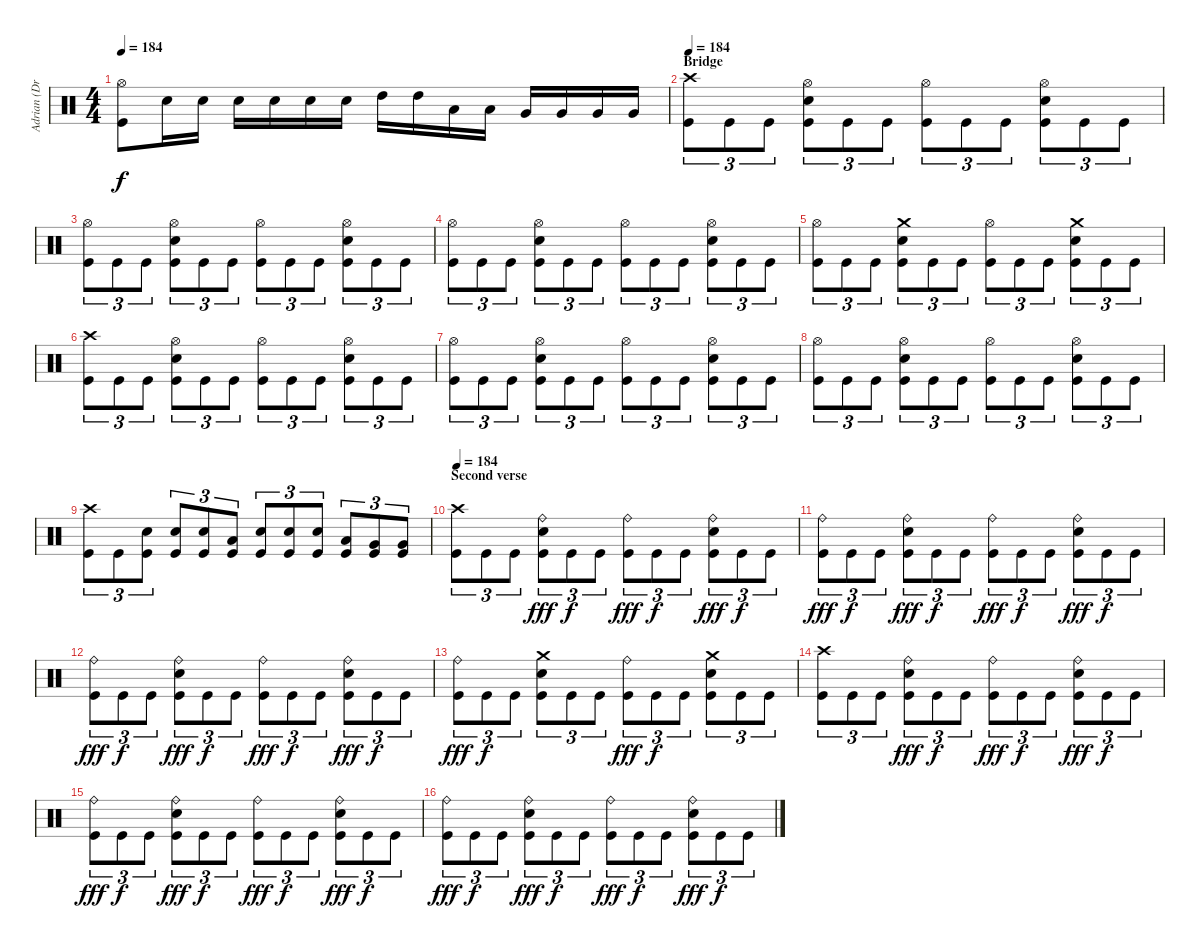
\track ("Adrian (Drums)" "Adrian (Dr") {instrument percussion}
\staff {score}
\articulation defaults
\ts (4 4)
\tempo 184
\clef neutral
\ks c
("Hi-Hat (open)" "Kick (hit)").8{dy f} "Electric Snare (hit)".16 "Electric Snare (hit)".16 "Electric Snare (hit)".16 "Electric Snare (hit)".16 "Electric Snare (hit)".16 "Electric Snare (hit)".16 "High Tom (hit)".16 "High Tom (hit)".16 "Low Tom (hit)".16 "Low Tom (hit)".16 "Very Low Tom (hit)".16 "Very Low Tom (hit)".16 "Very Low Tom (hit)".16 "Very Low Tom (hit)".16 |
\section ("" "Bridge")
\tempo 184
("Crash high (hit)" "Kick (hit)").8{tu (3 2)} "Kick (hit)".8{tu (3 2)} "Kick (hit)".8{tu (3 2)} ("Hi-Hat (open)" "Electric Snare (hit)" "Kick (hit)").8{tu (3 2)} "Kick (hit)".8{tu (3 2)} "Kick (hit)".8{tu (3 2)} ("Hi-Hat (open)" "Kick (hit)").8{tu (3 2)} "Kick (hit)".8{tu (3 2)} "Kick (hit)".8{tu (3 2)} ("Hi-Hat (open)" "Electric Snare (hit)" "Kick (hit)").8{tu (3 2)} "Kick (hit)".8{tu (3 2)} "Kick (hit)".8{tu (3 2)} |
("Hi-Hat (open)" "Kick (hit)").8{tu (3 2)} "Kick (hit)".8{tu (3 2)} "Kick (hit)".8{tu (3 2)} ("Hi-Hat (open)" "Electric Snare (hit)" "Kick (hit)").8{tu (3 2)} "Kick (hit)".8{tu (3 2)} "Kick (hit)".8{tu (3 2)} ("Hi-Hat (open)" "Kick (hit)").8{tu (3 2)} "Kick (hit)".8{tu (3 2)} "Kick (hit)".8{tu (3 2)} ("Hi-Hat (open)" "Electric Snare (hit)" "Kick (hit)").8{tu (3 2)} "Kick (hit)".8{tu (3 2)} "Kick (hit)".8{tu (3 2)} |
("Hi-Hat (open)" "Kick (hit)").8{tu (3 2)} "Kick (hit)".8{tu (3 2)} "Kick (hit)".8{tu (3 2)} ("Hi-Hat (open)" "Electric Snare (hit)" "Kick (hit)").8{tu (3 2)} "Kick (hit)".8{tu (3 2)} "Kick (hit)".8{tu (3 2)} ("Hi-Hat (open)" "Kick (hit)").8{tu (3 2)} "Kick (hit)".8{tu (3 2)} "Kick (hit)".8{tu (3 2)} ("Hi-Hat (open)" "Electric Snare (hit)" "Kick (hit)").8{tu (3 2)} "Kick (hit)".8{tu (3 2)} "Kick (hit)".8{tu (3 2)} |
("Hi-Hat (open)" "Kick (hit)").8{tu (3 2)} "Kick (hit)".8{tu (3 2)} "Kick (hit)".8{tu (3 2)} ("Crash medium (hit)" "Electric Snare (hit)" "Kick (hit)").8{tu (3 2)} "Kick (hit)".8{tu (3 2)} "Kick (hit)".8{tu (3 2)} ("Hi-Hat (open)" "Kick (hit)").8{tu (3 2)} "Kick (hit)".8{tu (3 2)} "Kick (hit)".8{tu (3 2)} ("Crash medium (hit)" "Electric Snare (hit)" "Kick (hit)").8{tu (3 2)} "Kick (hit)".8{tu (3 2)} "Kick (hit)".8{tu (3 2)} |
("Crash high (hit)" "Kick (hit)").8{tu (3 2)} "Kick (hit)".8{tu (3 2)} "Kick (hit)".8{tu (3 2)} ("Hi-Hat (open)" "Electric Snare (hit)" "Kick (hit)").8{tu (3 2)} "Kick (hit)".8{tu (3 2)} "Kick (hit)".8{tu (3 2)} ("Hi-Hat (open)" "Kick (hit)").8{tu (3 2)} "Kick (hit)".8{tu (3 2)} "Kick (hit)".8{tu (3 2)} ("Hi-Hat (open)" "Electric Snare (hit)" "Kick (hit)").8{tu (3 2)} "Kick (hit)".8{tu (3 2)} "Kick (hit)".8{tu (3 2)} |
("Hi-Hat (open)" "Kick (hit)").8{tu (3 2)} "Kick (hit)".8{tu (3 2)} "Kick (hit)".8{tu (3 2)} ("Hi-Hat (open)" "Electric Snare (hit)" "Kick (hit)").8{tu (3 2)} "Kick (hit)".8{tu (3 2)} "Kick (hit)".8{tu (3 2)} ("Hi-Hat (open)" "Kick (hit)").8{tu (3 2)} "Kick (hit)".8{tu (3 2)} "Kick (hit)".8{tu (3 2)} ("Hi-Hat (open)" "Electric Snare (hit)" "Kick (hit)").8{tu (3 2)} "Kick (hit)".8{tu (3 2)} "Kick (hit)".8{tu (3 2)} |
("Hi-Hat (open)" "Kick (hit)").8{tu (3 2)} "Kick (hit)".8{tu (3 2)} "Kick (hit)".8{tu (3 2)} ("Hi-Hat (open)" "Electric Snare (hit)" "Kick (hit)").8{tu (3 2)} "Kick (hit)".8{tu (3 2)} "Kick (hit)".8{tu (3 2)} ("Hi-Hat (open)" "Kick (hit)").8{tu (3 2)} "Kick (hit)".8{tu (3 2)} "Kick (hit)".8{tu (3 2)} ("Hi-Hat (open)" "Electric Snare (hit)" "Kick (hit)").8{tu (3 2)} "Kick (hit)".8{tu (3 2)} "Kick (hit)".8{tu (3 2)} |
("Crash high (hit)" "Kick (hit)").8{tu (3 2)} "Kick (hit)".8{tu (3 2)} ("Electric Snare (hit)" "Kick (hit)").8{tu (3 2)} ("Electric Snare (hit)" "Kick (hit)").8{tu (3 2)} ("Electric Snare (hit)" "Kick (hit)").8{tu (3 2)} ("Low Tom (hit)" "Kick (hit)").8{tu (3 2)} ("Electric Snare (hit)" "Kick (hit)").8{tu (3 2)} ("Electric Snare (hit)" "Kick (hit)").8{tu (3 2)} ("Electric Snare (hit)" "Kick (hit)").8{tu (3 2)} ("Low Tom (hit)" "Kick (hit)").8{tu (3 2)} ("Very Low Tom (hit)" "Kick (hit)").8{tu (3 2)} ("Very Low Tom (hit)" "Kick (hit)").8{tu (3 2)} |
\section ("" "Second verse")
\tempo 184
("Crash high (hit)" "Kick (hit)").8{tu (3 2)} "Kick (hit)".8{tu (3 2)} "Kick (hit)".8{tu (3 2)} ("Ride (bell)" "Electric Snare (hit)" "Kick (hit)").8{tu (3 2) dy fff} "Kick (hit)".8{tu (3 2) dy f} "Kick (hit)".8{tu (3 2)} ("Ride (bell)" "Kick (hit)").8{tu (3 2) dy fff} "Kick (hit)".8{tu (3 2) dy f} "Kick (hit)".8{tu (3 2)} ("Ride (bell)" "Electric Snare (hit)" "Kick (hit)").8{tu (3 2) dy fff} "Kick (hit)".8{tu (3 2) dy f} "Kick (hit)".8{tu (3 2)} |
("Ride (bell)" "Kick (hit)").8{tu (3 2) dy fff} "Kick (hit)".8{tu (3 2) dy f} "Kick (hit)".8{tu (3 2)} ("Ride (bell)" "Electric Snare (hit)" "Kick (hit)").8{tu (3 2) dy fff} "Kick (hit)".8{tu (3 2) dy f} "Kick (hit)".8{tu (3 2)} ("Ride (bell)" "Kick (hit)").8{tu (3 2) dy fff} "Kick (hit)".8{tu (3 2) dy f} "Kick (hit)".8{tu (3 2)} ("Ride (bell)" "Electric Snare (hit)" "Kick (hit)").8{tu (3 2) dy fff} "Kick (hit)".8{tu (3 2) dy f} "Kick (hit)".8{tu (3 2)} |
("Ride (bell)" "Kick (hit)").8{tu (3 2) dy fff} "Kick (hit)".8{tu (3 2) dy f} "Kick (hit)".8{tu (3 2)} ("Ride (bell)" "Electric Snare (hit)" "Kick (hit)").8{tu (3 2) dy fff} "Kick (hit)".8{tu (3 2) dy f} "Kick (hit)".8{tu (3 2)} ("Ride (bell)" "Kick (hit)").8{tu (3 2) dy fff} "Kick (hit)".8{tu (3 2) dy f} "Kick (hit)".8{tu (3 2)} ("Ride (bell)" "Electric Snare (hit)" "Kick (hit)").8{tu (3 2) dy fff} "Kick (hit)".8{tu (3 2) dy f} "Kick (hit)".8{tu (3 2)} |
("Ride (bell)" "Kick (hit)").8{tu (3 2) dy fff} "Kick (hit)".8{tu (3 2) dy f} "Kick (hit)".8{tu (3 2)} ("Crash medium (hit)" "Electric Snare (hit)" "Kick (hit)").8{tu (3 2)} "Kick (hit)".8{tu (3 2)} "Kick (hit)".8{tu (3 2)} ("Ride (bell)" "Kick (hit)").8{tu (3 2) dy fff} "Kick (hit)".8{tu (3 2) dy f} "Kick (hit)".8{tu (3 2)} ("Crash medium (hit)" "Electric Snare (hit)" "Kick (hit)").8{tu (3 2)} "Kick (hit)".8{tu (3 2)} "Kick (hit)".8{tu (3 2)} |
("Crash high (hit)" "Kick (hit)").8{tu (3 2)} "Kick (hit)".8{tu (3 2)} "Kick (hit)".8{tu (3 2)} ("Ride (bell)" "Electric Snare (hit)" "Kick (hit)").8{tu (3 2) dy fff} "Kick (hit)".8{tu (3 2) dy f} "Kick (hit)".8{tu (3 2)} ("Ride (bell)" "Kick (hit)").8{tu (3 2) dy fff} "Kick (hit)".8{tu (3 2) dy f} "Kick (hit)".8{tu (3 2)} ("Ride (bell)" "Electric Snare (hit)" "Kick (hit)").8{tu (3 2) dy fff} "Kick (hit)".8{tu (3 2) dy f} "Kick (hit)".8{tu (3 2)} |
("Ride (bell)" "Kick (hit)").8{tu (3 2) dy fff} "Kick (hit)".8{tu (3 2) dy f} "Kick (hit)".8{tu (3 2)} ("Ride (bell)" "Electric Snare (hit)" "Kick (hit)").8{tu (3 2) dy fff} "Kick (hit)".8{tu (3 2) dy f} "Kick (hit)".8{tu (3 2)} ("Ride (bell)" "Kick (hit)").8{tu (3 2) dy fff} "Kick (hit)".8{tu (3 2) dy f} "Kick (hit)".8{tu (3 2)} ("Ride (bell)" "Electric Snare (hit)" "Kick (hit)").8{tu (3 2) dy fff} "Kick (hit)".8{tu (3 2) dy f} "Kick (hit)".8{tu (3 2)} |
("Ride (bell)" "Kick (hit)").8{tu (3 2) dy fff} "Kick (hit)".8{tu (3 2) dy f} "Kick (hit)".8{tu (3 2)} ("Ride (bell)" "Electric Snare (hit)" "Kick (hit)").8{tu (3 2) dy fff} "Kick (hit)".8{tu (3 2) dy f} "Kick (hit)".8{tu (3 2)} ("Ride (bell)" "Kick (hit)").8{tu (3 2) dy fff} "Kick (hit)".8{tu (3 2) dy f} "Kick (hit)".8{tu (3 2)} ("Ride (bell)" "Electric Snare (hit)" "Kick (hit)").8{tu (3 2) dy fff} "Kick (hit)".8{tu (3 2) dy f} "Kick (hit)".8{tu (3 2)}
